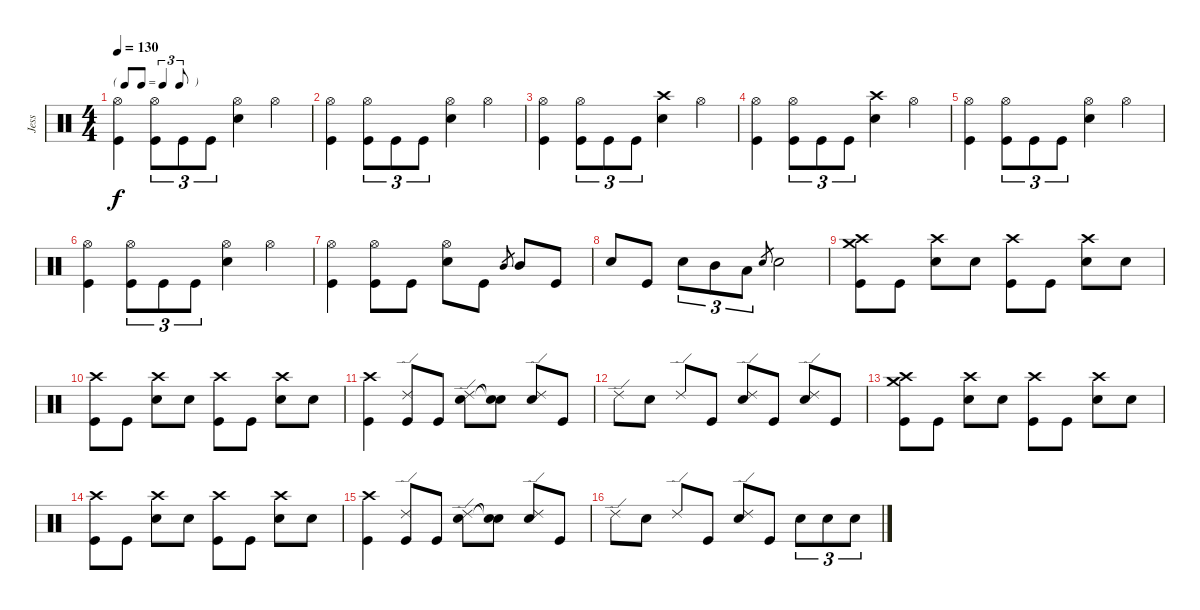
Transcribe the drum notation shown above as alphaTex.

\track ("Jess" "Jess") {instrument percussion}
\staff {score}
\articulation defaults
\ts (4 4)
\tf triplet8th
\tempo 130
\clef neutral
\ks c
("Hi-Hat (open)" "Kick (hit)").4{dy f} ("Hi-Hat (open)" "Kick (hit)").8{tu (3 2)} "Kick (hit)".8{tu (3 2)} "Kick (hit)".8{tu (3 2)} ("Hi-Hat (open)" "Snare (hit) 2").4 "Hi-Hat (open)".4 |
("Hi-Hat (open)" "Kick (hit)").4 ("Hi-Hat (open)" "Kick (hit)").8{tu (3 2)} "Kick (hit)".8{tu (3 2)} "Kick (hit)".8{tu (3 2)} ("Hi-Hat (open)" "Snare (hit) 2").4 "Hi-Hat (open)".4 |
("Hi-Hat (open)" "Kick (hit)").4 ("Hi-Hat (open)" "Kick (hit)").8{tu (3 2)} "Kick (hit)".8{tu (3 2)} "Kick (hit)".8{tu (3 2)} ("Crash high (hit)" "Snare (hit) 2").4 "Hi-Hat (open)".4 |
("Hi-Hat (open)" "Kick (hit)").4 ("Hi-Hat (open)" "Kick (hit)").8{tu (3 2)} "Kick (hit)".8{tu (3 2)} "Kick (hit)".8{tu (3 2)} ("Crash high (hit)" "Snare (hit) 2").4 "Hi-Hat (open)".4 |
("Hi-Hat (open)" "Kick (hit)").4 ("Hi-Hat (open)" "Kick (hit)").8{tu (3 2)} "Kick (hit)".8{tu (3 2)} "Kick (hit)".8{tu (3 2)} ("Hi-Hat (open)" "Snare (hit) 2").4 "Hi-Hat (open)".4 |
("Hi-Hat (open)" "Kick (hit)").4 ("Hi-Hat (open)" "Kick (hit)").8{tu (3 2)} "Kick (hit)".8{tu (3 2)} "Kick (hit)".8{tu (3 2)} ("Hi-Hat (open)" "Snare (hit) 2").4 "Hi-Hat (open)".4 |
("Hi-Hat (open)" "Kick (hit)").4 ("Hi-Hat (open)" "Kick (hit)").8 "Kick (hit)".8 ("Hi-Hat (open)" "Snare (hit) 2").8 "Kick (hit)".8 "Mid Tom (hit)".8{gr} "Mid Tom (hit)".8 "Kick (hit)".8 |
"Snare (hit) 2".8 "Kick (hit)".8 "Snare (hit) 2".8{tu (3 2)} "Mid Tom (hit)".8{tu (3 2)} "Low Tom (hit)".8{tu (3 2)} "Snare (hit) 2".8{gr} "Snare (hit) 2".2 |
("Crash high (hit)" "Crash medium (hit)" "Kick (hit)").8 "Kick (hit)".8 ("Crash high (hit)" "Snare (hit) 2").8 "Snare (hit) 2".8 ("Crash high (hit)" "Kick (hit)").8 "Kick (hit)".8 ("Crash high (hit)" "Snare (hit) 2").8 "Snare (hit) 2".8 |
("Crash high (hit)" "Kick (hit)").8 "Kick (hit)".8 ("Crash high (hit)" "Snare (hit) 2").8 "Snare (hit) 2".8 ("Crash high (hit)" "Kick (hit)").8 "Kick (hit)".8 ("Crash high (hit)" "Snare (hit) 2").8 "Snare (hit) 2".8 |
("Crash high (hit)" "Kick (hit)").4 ("Ride (edge) 2" "Kick (hit)").8 "Kick (hit)".8 ("Ride (edge) 2" "Snare (hit) 2").8 ("Snare (hit)"{t} "Snare (hit)"{t}).8 ("Ride (edge) 2" "Snare (hit) 2").8 "Kick (hit)".8 |
"Ride (edge) 2".8 "Snare (hit) 2".8 "Ride (edge) 2".8 "Kick (hit)".8 ("Ride (edge) 2" "Snare (hit) 2").8 "Kick (hit)".8 ("Ride (edge) 2" "Snare (hit) 2").8 "Kick (hit)".8 |
("Crash high (hit)" "Crash medium (hit)" "Kick (hit)").8 "Kick (hit)".8 ("Crash high (hit)" "Snare (hit) 2").8 "Snare (hit) 2".8 ("Crash high (hit)" "Kick (hit)").8 "Kick (hit)".8 ("Crash high (hit)" "Snare (hit) 2").8 "Snare (hit) 2".8 |
("Crash high (hit)" "Kick (hit)").8 "Kick (hit)".8 ("Crash high (hit)" "Snare (hit) 2").8 "Snare (hit) 2".8 ("Crash high (hit)" "Kick (hit)").8 "Kick (hit)".8 ("Crash high (hit)" "Snare (hit) 2").8 "Snare (hit) 2".8 |
("Crash high (hit)" "Kick (hit)").4 ("Ride (edge) 2" "Kick (hit)").8 "Kick (hit)".8 ("Ride (edge) 2" "Snare (hit) 2").8 ("Snare (hit)"{t} "Snare (hit)"{t}).8 ("Ride (edge) 2" "Snare (hit) 2").8 "Kick (hit)".8 |
"Ride (edge) 2".8 "Snare (hit) 2".8 "Ride (edge) 2".8 "Kick (hit)".8 ("Ride (edge) 2" "Snare (hit) 2").8 "Kick (hit)".8 "Snare (hit) 2".8{tu (3 2)} "Snare (hit) 2".8{tu (3 2)} "Snare (hit) 2".8{tu (3 2)}
